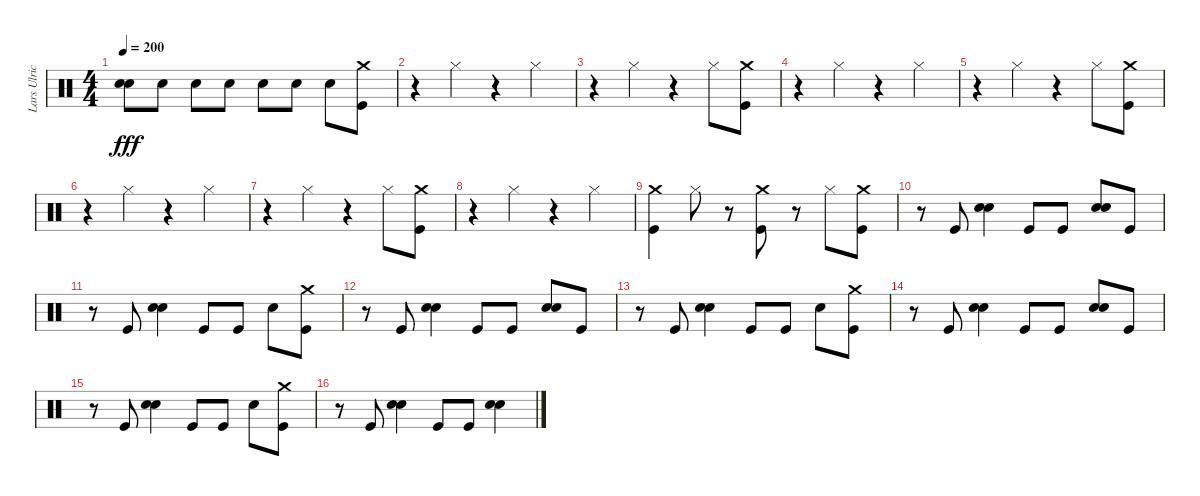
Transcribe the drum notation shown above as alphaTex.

\track ("Lars Ulrich" "Lars Ulric") {instrument percussion}
\staff {score}
\articulation defaults
\ts (4 4)
\tempo 200
\clef neutral
\ks c
("Snare (hit) 2" "Snare (hit) 2").8{dy fff} "Snare (hit) 2".8 "Snare (hit) 2".8 "Snare (hit) 2".8 "Snare (hit) 2".8 "Snare (hit) 2".8 "Snare (hit) 2".8 ("Crash medium (hit)" "Kick (hit)").8 |
r.4 "Hi-Hat (closed)".4 r.4 "Hi-Hat (closed)".4 |
r.4 "Hi-Hat (closed)".4 r.4 "Hi-Hat (closed)".8 ("Crash medium (hit)" "Kick (hit)").8 |
r.4 "Hi-Hat (closed)".4 r.4 "Hi-Hat (closed)".4 |
r.4 "Hi-Hat (closed)".4 r.4 "Hi-Hat (closed)".8 ("Crash medium (hit)" "Kick (hit)").8 |
r.4 "Hi-Hat (closed)".4 r.4 "Hi-Hat (closed)".4 |
r.4 "Hi-Hat (closed)".4 r.4 "Hi-Hat (closed)".8 ("Crash medium (hit)" "Kick (hit)").8 |
r.4 "Hi-Hat (closed)".4 r.4 "Hi-Hat (closed)".4 |
("Crash medium (hit)" "Kick (hit)").4 "Hi-Hat (closed)".8 r.8 ("Crash medium (hit)" "Kick (hit)").8 r.8 "Hi-Hat (closed)".8 ("Crash medium (hit)" "Kick (hit)").8 |
r.8 "Kick (hit)".8 ("Snare (hit) 2" "Snare (hit) 2").4 "Kick (hit)".8 "Kick (hit)".8 ("Snare (hit) 2" "Snare (hit) 2").8 "Kick (hit)".8 |
r.8 "Kick (hit)".8 ("Snare (hit) 2" "Snare (hit) 2").4 "Kick (hit)".8 "Kick (hit)".8 "Snare (hit) 2".8 ("Crash medium (hit)" "Kick (hit)").8 |
r.8 "Kick (hit)".8 ("Snare (hit) 2" "Snare (hit) 2").4 "Kick (hit)".8 "Kick (hit)".8 ("Snare (hit) 2" "Snare (hit) 2").8 "Kick (hit)".8 |
r.8 "Kick (hit)".8 ("Snare (hit) 2" "Snare (hit) 2").4 "Kick (hit)".8 "Kick (hit)".8 "Snare (hit) 2".8 ("Crash medium (hit)" "Kick (hit)").8 |
r.8 "Kick (hit)".8 ("Snare (hit) 2" "Snare (hit) 2").4 "Kick (hit)".8 "Kick (hit)".8 ("Snare (hit) 2" "Snare (hit) 2").8 "Kick (hit)".8 |
r.8 "Kick (hit)".8 ("Snare (hit) 2" "Snare (hit) 2").4 "Kick (hit)".8 "Kick (hit)".8 "Snare (hit) 2".8 ("Crash medium (hit)" "Kick (hit)").8 |
r.8 "Kick (hit)".8 ("Snare (hit) 2" "Snare (hit) 2").4 "Kick (hit)".8 "Kick (hit)".8 ("Snare (hit) 2" "Snare (hit) 2").4
